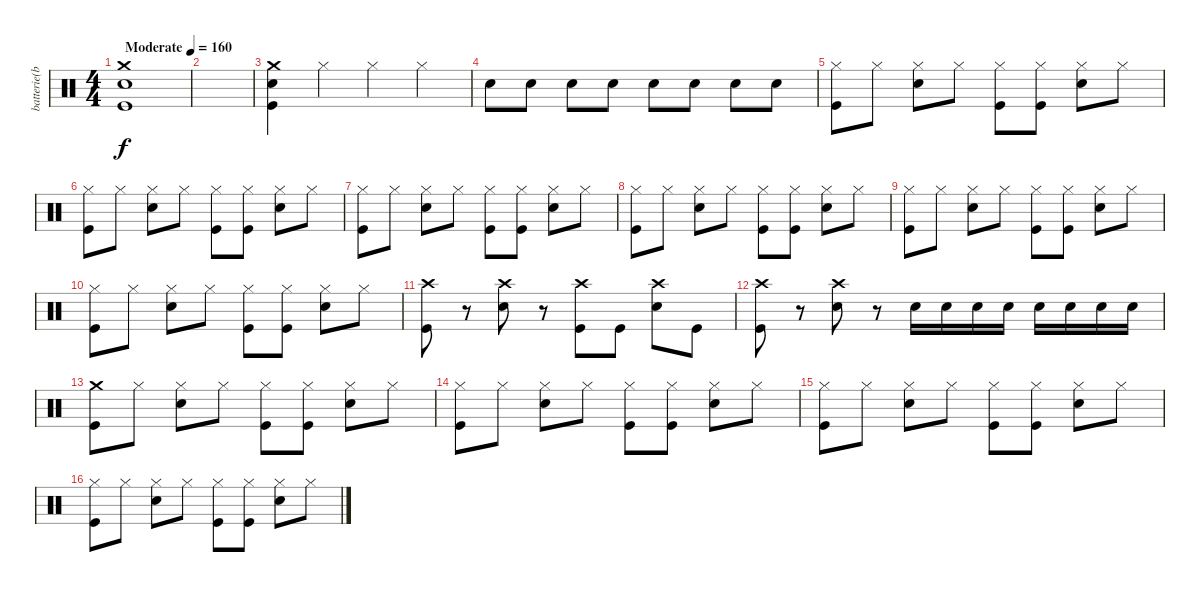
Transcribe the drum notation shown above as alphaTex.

\track ("batterie(brett)" "batterie(b") {instrument percussion}
\staff {score}
\articulation defaults
\ts (4 4)
\tempo (160 "Moderate")
\clef neutral
\ks c
("Crash medium (hit)" "Snare (hit) 2" "Kick (hit)").1{dy f} |
|
("Crash medium (hit)" "Snare (hit) 2" "Kick (hit)").4 "Hi-Hat (closed)".4 "Hi-Hat (closed)".4 "Hi-Hat (closed)".4 |
"Snare (hit) 2".8 "Snare (hit) 2".8 "Snare (hit) 2".8 "Snare (hit) 2".8 "Snare (hit) 2".8 "Snare (hit) 2".8 "Snare (hit) 2".8 "Snare (hit) 2".8 |
("Hi-Hat (closed)" "Kick (hit)").8 "Hi-Hat (closed)".8 ("Hi-Hat (closed)" "Snare (hit) 2").8 "Hi-Hat (closed)".8 ("Hi-Hat (closed)" "Kick (hit)").8 ("Hi-Hat (closed)" "Kick (hit)").8 ("Hi-Hat (closed)" "Snare (hit) 2").8 "Hi-Hat (closed)".8 |
("Hi-Hat (closed)" "Kick (hit)").8 "Hi-Hat (closed)".8 ("Hi-Hat (closed)" "Snare (hit) 2").8 "Hi-Hat (closed)".8 ("Hi-Hat (closed)" "Kick (hit)").8 ("Hi-Hat (closed)" "Kick (hit)").8 ("Hi-Hat (closed)" "Snare (hit) 2").8 "Hi-Hat (closed)".8 |
("Hi-Hat (closed)" "Kick (hit)").8 "Hi-Hat (closed)".8 ("Hi-Hat (closed)" "Snare (hit) 2").8 "Hi-Hat (closed)".8 ("Hi-Hat (closed)" "Kick (hit)").8 ("Hi-Hat (closed)" "Kick (hit)").8 ("Hi-Hat (closed)" "Snare (hit) 2").8 "Hi-Hat (closed)".8 |
("Hi-Hat (closed)" "Kick (hit)").8 "Hi-Hat (closed)".8 ("Hi-Hat (closed)" "Snare (hit) 2").8 "Hi-Hat (closed)".8 ("Hi-Hat (closed)" "Kick (hit)").8 ("Hi-Hat (closed)" "Kick (hit)").8 ("Hi-Hat (closed)" "Snare (hit) 2").8 "Hi-Hat (closed)".8 |
("Hi-Hat (closed)" "Kick (hit)").8 "Hi-Hat (closed)".8 ("Hi-Hat (closed)" "Snare (hit) 2").8 "Hi-Hat (closed)".8 ("Hi-Hat (closed)" "Kick (hit)").8 ("Hi-Hat (closed)" "Kick (hit)").8 ("Hi-Hat (closed)" "Snare (hit) 2").8 "Hi-Hat (closed)".8 |
("Hi-Hat (closed)" "Kick (hit)").8 "Hi-Hat (closed)".8 ("Hi-Hat (closed)" "Snare (hit) 2").8 "Hi-Hat (closed)".8 ("Hi-Hat (closed)" "Kick (hit)").8 ("Hi-Hat (closed)" "Kick (hit)").8 ("Hi-Hat (closed)" "Snare (hit) 2").8 "Hi-Hat (closed)".8 |
("Crash high (hit)" "Kick (hit)").8 r.8 ("Crash high (hit)" "Snare (hit) 2").8 r.8 ("Crash high (hit)" "Kick (hit)").8 "Kick (hit)".8 ("Crash high (hit)" "Snare (hit) 2").8 "Kick (hit)".8 |
("Crash high (hit)" "Kick (hit)").8 r.8 ("Crash high (hit)" "Snare (hit) 2").8 r.8 "Snare (hit) 2".16 "Snare (hit) 2".16 "Snare (hit) 2".16 "Snare (hit) 2".16 "Snare (hit) 2".16 "Snare (hit) 2".16 "Snare (hit) 2".16 "Snare (hit) 2".16 |
("Crash medium (hit)" "Kick (hit)").8 "Hi-Hat (closed)".8 ("Hi-Hat (closed)" "Snare (hit) 2").8 "Hi-Hat (closed)".8 ("Hi-Hat (closed)" "Kick (hit)").8 ("Hi-Hat (closed)" "Kick (hit)").8 ("Hi-Hat (closed)" "Snare (hit) 2").8 "Hi-Hat (closed)".8 |
("Hi-Hat (closed)" "Kick (hit)").8 "Hi-Hat (closed)".8 ("Hi-Hat (closed)" "Snare (hit) 2").8 "Hi-Hat (closed)".8 ("Hi-Hat (closed)" "Kick (hit)").8 ("Hi-Hat (closed)" "Kick (hit)").8 ("Hi-Hat (closed)" "Snare (hit) 2").8 "Hi-Hat (closed)".8 |
("Hi-Hat (closed)" "Kick (hit)").8 "Hi-Hat (closed)".8 ("Hi-Hat (closed)" "Snare (hit) 2").8 "Hi-Hat (closed)".8 ("Hi-Hat (closed)" "Kick (hit)").8 ("Hi-Hat (closed)" "Kick (hit)").8 ("Hi-Hat (closed)" "Snare (hit) 2").8 "Hi-Hat (closed)".8 |
("Hi-Hat (closed)" "Kick (hit)").8 "Hi-Hat (closed)".8 ("Hi-Hat (closed)" "Snare (hit) 2").8 "Hi-Hat (closed)".8 ("Hi-Hat (closed)" "Kick (hit)").8 ("Hi-Hat (closed)" "Kick (hit)").8 ("Hi-Hat (closed)" "Snare (hit) 2").8 "Hi-Hat (closed)".8
